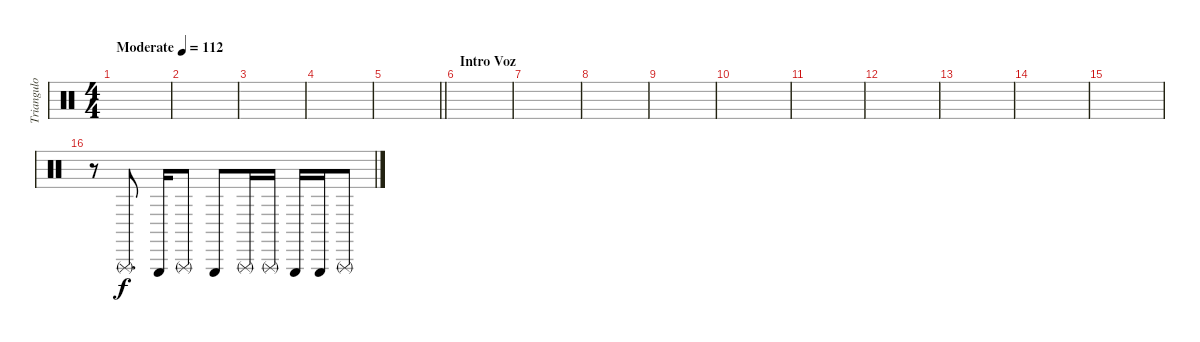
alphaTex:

\track ("Triangulo" "Triangulo") {instrument percussion}
\staff {score}
\articulation defaults
\ts (4 4)
\tempo (112 "Moderate")
\clef neutral
\ks c
|
|
|
|
\barLineRight lightlight
|
\section ("" "Intro Voz")
|
|
|
|
|
|
|
|
|
|
r.8 "Triangle (rnute)".8{d} "Triangle (hit)".16 "Triangle (rnute)".8 "Triangle (hit)".8 "Triangle (rnute)".16 "Triangle (rnute)".16 "Triangle (hit)".16 "Triangle (hit)".16 "Triangle (rnute)".8
